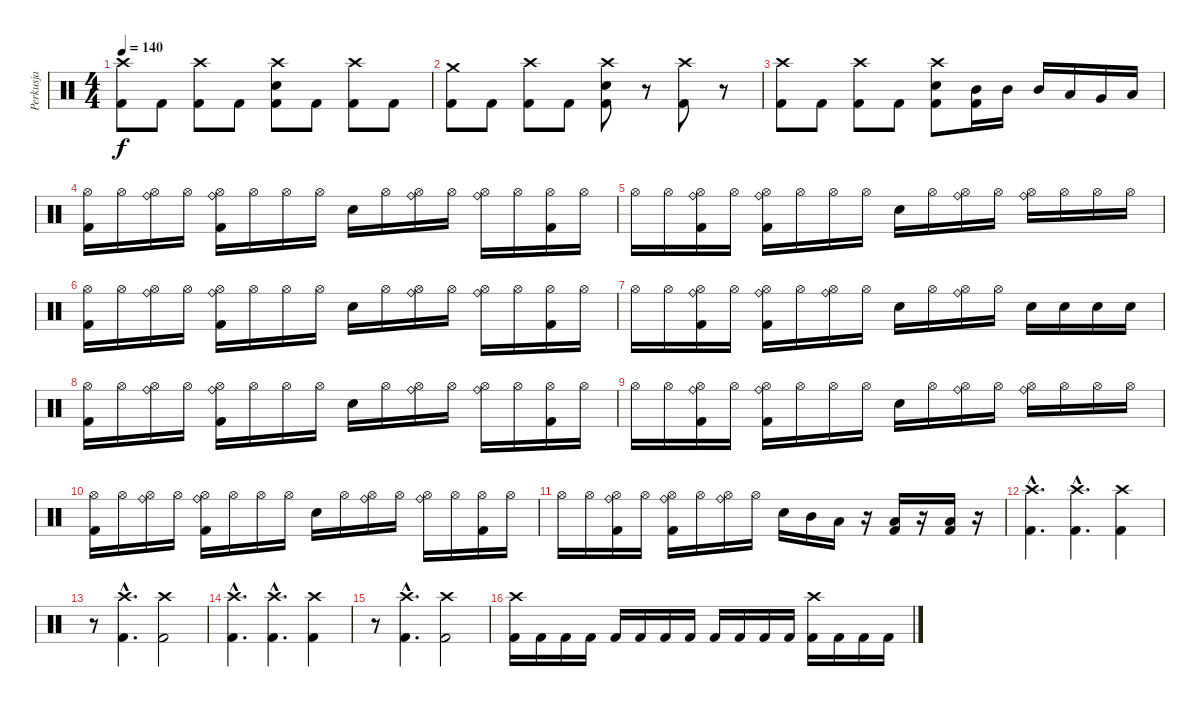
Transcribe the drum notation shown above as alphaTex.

\track ("Perkusja" "Perkusja") {instrument percussion}
\staff {score}
\articulation defaults
\ts (4 4)
\tempo 140
\clef neutral
\ks c
("Crash high (hit)" "Kick (hit) 2").8{dy f} "Kick (hit) 2".8 ("Crash high (hit)" "Kick (hit) 2").8 "Kick (hit) 2".8 ("Crash high (hit)" "Electric Snare (hit)" "Kick (hit) 2").8 "Kick (hit) 2".8 ("Crash high (hit)" "Kick (hit) 2").8 "Kick (hit) 2".8 |
("Crash medium (hit)" "Kick (hit) 2").8 "Kick (hit) 2".8 ("Crash high (hit)" "Kick (hit) 2").8 "Kick (hit) 2".8 ("Crash high (hit)" "Electric Snare (hit)" "Kick (hit) 2").8 r.8 ("Crash high (hit)" "Kick (hit) 2").8 r.8 |
("Crash high (hit)" "Kick (hit) 2").8 "Kick (hit) 2".8 ("Crash high (hit)" "Kick (hit) 2").8 "Kick (hit) 2".8 ("Crash high (hit)" "Electric Snare (hit)" "Kick (hit) 2").8 ("Mid Tom (hit)" "Kick (hit) 2").16 "Mid Tom (hit)".16 "Mid Tom (hit)".16 "Low Tom (hit)".16 "Very Low Tom (hit)".16 "Low Floor Tom (hit)".16 |
("Hi-Hat (open)" "Kick (hit) 2").16{txt " "} "Hi-Hat (open)".16 ("Hi-Hat (open)" "Ride (bell)").16 "Hi-Hat (open)".16 ("Hi-Hat (open)" "Ride (bell)" "Kick (hit) 2").16 "Hi-Hat (open)".16 "Hi-Hat (open)".16 "Hi-Hat (open)".16 "Electric Snare (hit)".16 "Hi-Hat (open)".16 ("Hi-Hat (open)" "Ride (bell)").16 "Hi-Hat (open)".16 ("Hi-Hat (open)" "Ride (bell)").16 "Hi-Hat (open)".16 ("Hi-Hat (open)" "Kick (hit) 2").16 "Hi-Hat (open)".16 |
"Hi-Hat (open)".16 "Hi-Hat (open)".16 ("Hi-Hat (open)" "Ride (bell)" "Kick (hit) 2").16 "Hi-Hat (open)".16 ("Hi-Hat (open)" "Ride (bell)" "Kick (hit) 2").16 "Hi-Hat (open)".16 "Hi-Hat (open)".16 "Hi-Hat (open)".16 "Electric Snare (hit)".16 "Hi-Hat (open)".16 ("Hi-Hat (open)" "Ride (bell)").16 "Hi-Hat (open)".16 ("Hi-Hat (open)" "Ride (bell)").16 "Hi-Hat (open)".16 "Hi-Hat (open)".16 "Hi-Hat (open)".16 |
("Hi-Hat (open)" "Kick (hit) 2").16{txt " "} "Hi-Hat (open)".16 ("Hi-Hat (open)" "Ride (bell)").16 "Hi-Hat (open)".16 ("Hi-Hat (open)" "Ride (bell)" "Kick (hit) 2").16 "Hi-Hat (open)".16 "Hi-Hat (open)".16 "Hi-Hat (open)".16 "Electric Snare (hit)".16 "Hi-Hat (open)".16 ("Hi-Hat (open)" "Ride (bell)").16 "Hi-Hat (open)".16 ("Hi-Hat (open)" "Ride (bell)").16 "Hi-Hat (open)".16 ("Hi-Hat (open)" "Kick (hit) 2").16 "Hi-Hat (open)".16 |
"Hi-Hat (open)".16 "Hi-Hat (open)".16 ("Hi-Hat (open)" "Ride (bell)" "Kick (hit) 2").16 "Hi-Hat (open)".16 ("Hi-Hat (open)" "Ride (bell)" "Kick (hit) 2").16 "Hi-Hat (open)".16 ("Hi-Hat (open)" "Ride (bell)").16 "Hi-Hat (open)".16 "Electric Snare (hit)".16 "Hi-Hat (open)".16 ("Hi-Hat (open)" "Ride (bell)").16 "Hi-Hat (open)".16 "Electric Snare (hit)".16 "Electric Snare (hit)".16 "Electric Snare (hit)".16 "Electric Snare (hit)".16 |
("Hi-Hat (open)" "Kick (hit) 2").16{txt " "} "Hi-Hat (open)".16 ("Hi-Hat (open)" "Ride (bell)").16 "Hi-Hat (open)".16 ("Hi-Hat (open)" "Ride (bell)" "Kick (hit) 2").16 "Hi-Hat (open)".16 "Hi-Hat (open)".16 "Hi-Hat (open)".16 "Electric Snare (hit)".16 "Hi-Hat (open)".16 ("Hi-Hat (open)" "Ride (bell)").16 "Hi-Hat (open)".16 ("Hi-Hat (open)" "Ride (bell)").16 "Hi-Hat (open)".16 ("Hi-Hat (open)" "Kick (hit) 2").16 "Hi-Hat (open)".16 |
"Hi-Hat (open)".16 "Hi-Hat (open)".16 ("Hi-Hat (open)" "Ride (bell)" "Kick (hit) 2").16 "Hi-Hat (open)".16 ("Hi-Hat (open)" "Ride (bell)" "Kick (hit) 2").16 "Hi-Hat (open)".16 "Hi-Hat (open)".16 "Hi-Hat (open)".16 "Electric Snare (hit)".16 "Hi-Hat (open)".16 ("Hi-Hat (open)" "Ride (bell)").16 "Hi-Hat (open)".16 ("Hi-Hat (open)" "Ride (bell)").16 "Hi-Hat (open)".16 "Hi-Hat (open)".16 "Hi-Hat (open)".16 |
("Hi-Hat (open)" "Kick (hit) 2").16{txt " "} "Hi-Hat (open)".16 ("Hi-Hat (open)" "Ride (bell)").16 "Hi-Hat (open)".16 ("Hi-Hat (open)" "Ride (bell)" "Kick (hit) 2").16 "Hi-Hat (open)".16 "Hi-Hat (open)".16 "Hi-Hat (open)".16 "Electric Snare (hit)".16 "Hi-Hat (open)".16 ("Hi-Hat (open)" "Ride (bell)").16 "Hi-Hat (open)".16 ("Hi-Hat (open)" "Ride (bell)").16 "Hi-Hat (open)".16 ("Hi-Hat (open)" "Kick (hit) 2").16 "Hi-Hat (open)".16 |
"Hi-Hat (open)".16 "Hi-Hat (open)".16 ("Hi-Hat (open)" "Ride (bell)" "Kick (hit) 2").16 "Hi-Hat (open)".16 ("Hi-Hat (open)" "Ride (bell)" "Kick (hit) 2").16 "Hi-Hat (open)".16 ("Hi-Hat (open)" "Ride (bell)").16 "Hi-Hat (open)".16 "Electric Snare (hit)".16 "Mid Tom (hit)".16 "Low Tom (hit)".16 r.16 ("Low Floor Tom (hit)" "Kick (hit) 2").16 r.16 ("Low Floor Tom (hit)" "Kick (hit) 2").16 r.16 |
("Crash high (hit)"{hac} "Kick (hit) 2"{hac}).4{d} ("Crash high (hit)"{hac} "Kick (hit) 2"{hac}).4{d} ("Crash high (hit)" "Kick (hit) 2").4 |
r.8 ("Crash high (hit)"{hac} "Kick (hit) 2"{hac}).4{d} ("Crash high (hit)" "Kick (hit) 2").2 |
("Crash high (hit)"{hac} "Kick (hit) 2"{hac}).4{d} ("Crash high (hit)"{hac} "Kick (hit) 2"{hac}).4{d} ("Crash high (hit)" "Kick (hit) 2").4 |
r.8 ("Crash high (hit)"{hac} "Kick (hit) 2"{hac}).4{d} ("Crash high (hit)" "Kick (hit) 2").2 |
("Crash high (hit)" "Kick (hit) 2").16 "Kick (hit) 2".16 "Kick (hit) 2".16 "Kick (hit) 2".16 "Kick (hit) 2".16 "Kick (hit) 2".16 "Kick (hit) 2".16 "Kick (hit) 2".16 "Kick (hit) 2".16 "Kick (hit) 2".16 "Kick (hit) 2".16 "Kick (hit) 2".16 ("Crash high (hit)" "Kick (hit) 2").16 "Kick (hit) 2".16 "Kick (hit) 2".16 "Kick (hit) 2".16
